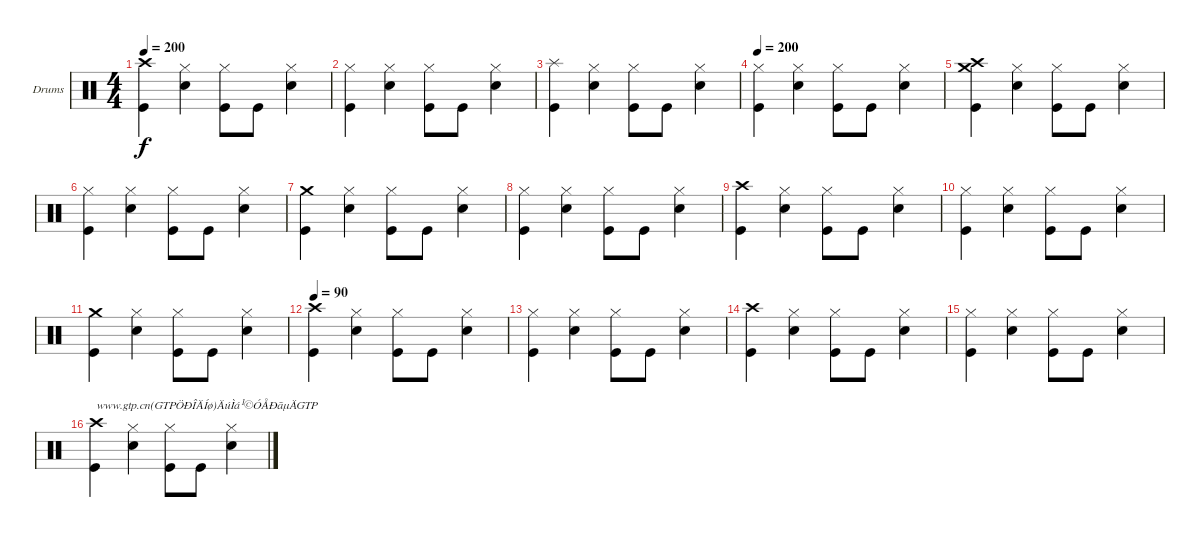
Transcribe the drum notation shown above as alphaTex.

\bracketExtendMode groupsimilarinstruments
\firstSystemTrackNameOrientation horizontal
\otherSystemsTrackNameOrientation horizontal
\track ("Drumkit" "Drums") {instrument percussion}
\staff {score}
\articulation defaults
\ts (4 4)
\tempo 200
\clef neutral
\ks c
("Crash high (hit)" "Kick (hit)").4{dy f} ("Hi-Hat (closed)" "Snare (hit) 2").4 ("Hi-Hat (closed)" "Kick (hit)").8 "Kick (hit)".8 ("Hi-Hat (closed)" "Snare (hit) 2").4 |
("Hi-Hat (closed)" "Kick (hit)").4 ("Hi-Hat (closed)" "Snare (hit) 2").4 ("Hi-Hat (closed)" "Kick (hit)").8 "Kick (hit)".8 ("Hi-Hat (closed)" "Snare (hit) 2").4 |
("Splash (hit)" "Kick (hit)").4 ("Hi-Hat (closed)" "Snare (hit) 2").4 ("Hi-Hat (closed)" "Kick (hit)").8 "Kick (hit)".8 ("Hi-Hat (closed)" "Snare (hit) 2").4 |
\tempo 200
("Hi-Hat (closed)" "Kick (hit)").4 ("Hi-Hat (closed)" "Snare (hit) 2").4 ("Hi-Hat (closed)" "Kick (hit)").8 "Kick (hit)".8 ("Hi-Hat (closed)" "Snare (hit) 2").4 |
("Crash high (hit)" "Crash medium (hit)" "Kick (hit)").4 ("Hi-Hat (closed)" "Snare (hit) 2").4 ("Hi-Hat (closed)" "Kick (hit)").8 "Kick (hit)".8 ("Hi-Hat (closed)" "Snare (hit) 2").4 |
("Hi-Hat (closed)" "Kick (hit)").4 ("Hi-Hat (closed)" "Snare (hit) 2").4 ("Hi-Hat (closed)" "Kick (hit)").8 "Kick (hit)".8 ("Hi-Hat (closed)" "Snare (hit) 2").4 |
("Crash medium (hit)" "Kick (hit)").4 ("Hi-Hat (closed)" "Snare (hit) 2").4 ("Hi-Hat (closed)" "Kick (hit)").8 "Kick (hit)".8 ("Hi-Hat (closed)" "Snare (hit) 2").4 |
("Hi-Hat (closed)" "Kick (hit)").4 ("Hi-Hat (closed)" "Snare (hit) 2").4 ("Hi-Hat (closed)" "Kick (hit)").8 "Kick (hit)".8 ("Hi-Hat (closed)" "Snare (hit) 2").4 |
("Crash high (hit)" "Kick (hit)").4 ("Hi-Hat (closed)" "Snare (hit) 2").4 ("Hi-Hat (closed)" "Kick (hit)").8 "Kick (hit)".8 ("Hi-Hat (closed)" "Snare (hit) 2").4 |
("Hi-Hat (closed)" "Kick (hit)").4 ("Hi-Hat (closed)" "Snare (hit) 2").4 ("Hi-Hat (closed)" "Kick (hit)").8 "Kick (hit)".8 ("Hi-Hat (closed)" "Snare (hit) 2").4 |
("Crash medium (hit)" "Kick (hit)").4 ("Hi-Hat (closed)" "Snare (hit) 2").4 ("Hi-Hat (closed)" "Kick (hit)").8 "Kick (hit)".8 ("Hi-Hat (closed)" "Snare (hit) 2").4 |
\tempo 90
("Crash high (hit)" "Kick (hit)").4 ("Hi-Hat (closed)" "Snare (hit) 2").4 ("Hi-Hat (closed)" "Kick (hit)").8 "Kick (hit)".8 ("Hi-Hat (closed)" "Snare (hit) 2").4 |
("Hi-Hat (closed)" "Kick (hit)").4 ("Hi-Hat (closed)" "Snare (hit) 2").4 ("Hi-Hat (closed)" "Kick (hit)").8 "Kick (hit)".8 ("Hi-Hat (closed)" "Snare (hit) 2").4 |
("Crash high (hit)" "Kick (hit)").4 ("Hi-Hat (closed)" "Snare (hit) 2").4 ("Hi-Hat (closed)" "Kick (hit)").8 "Kick (hit)".8 ("Hi-Hat (closed)" "Snare (hit) 2").4 |
("Hi-Hat (closed)" "Kick (hit)").4 ("Hi-Hat (closed)" "Snare (hit) 2").4 ("Hi-Hat (closed)" "Kick (hit)").8 "Kick (hit)".8 ("Hi-Hat (closed)" "Snare (hit) 2").4 |
("Crash high (hit)" "Kick (hit)").4{txt "www.gtp.cn(GTPÖÐÎÄÍø)ÄúÌá¹©ÓÅÐãµÄGTP"} ("Hi-Hat (closed)" "Snare (hit) 2").4 ("Hi-Hat (closed)" "Kick (hit)").8 "Kick (hit)".8 ("Hi-Hat (closed)" "Snare (hit) 2").4
